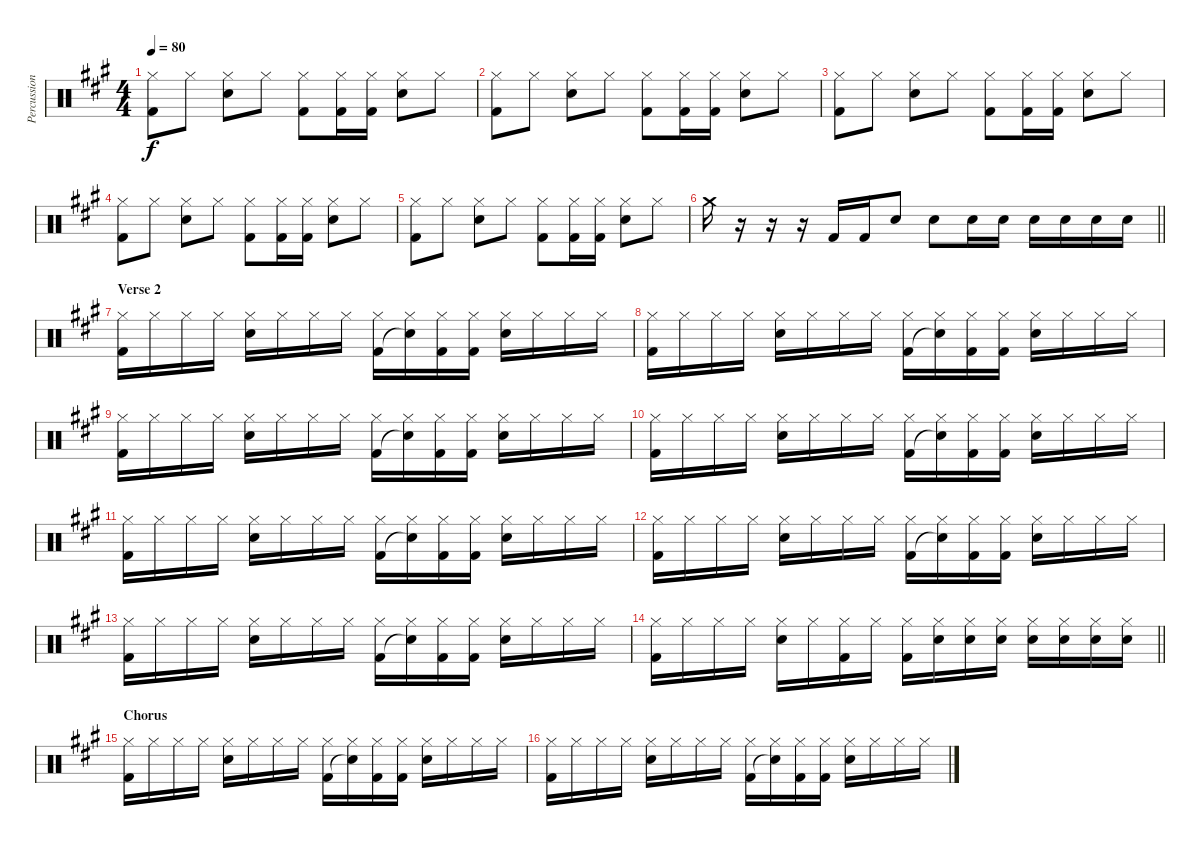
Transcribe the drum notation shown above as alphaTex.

\track ("Percussion" "Percussion") {instrument percussion}
\staff {score}
\articulation defaults
\ts (4 4)
\tempo 80
\clef neutral
\ks a
("Hi-Hat (closed)" "Kick (hit) 2").8{dy f} "Hi-Hat (closed)".8 ("Hi-Hat (closed)" "Snare (hit) 2").8 "Hi-Hat (closed)".8 ("Hi-Hat (closed)" "Kick (hit) 2").8 ("Hi-Hat (closed)" "Kick (hit) 2").16 ("Hi-Hat (closed)" "Kick (hit) 2").16 ("Hi-Hat (closed)" "Snare (hit) 2").8 "Hi-Hat (closed)".8 |
("Hi-Hat (closed)" "Kick (hit) 2").8 "Hi-Hat (closed)".8 ("Hi-Hat (closed)" "Snare (hit) 2").8 "Hi-Hat (closed)".8 ("Hi-Hat (closed)" "Kick (hit) 2").8 ("Hi-Hat (closed)" "Kick (hit) 2").16 ("Hi-Hat (closed)" "Kick (hit) 2").16 ("Hi-Hat (closed)" "Snare (hit) 2").8 "Hi-Hat (closed)".8 |
("Hi-Hat (closed)" "Kick (hit) 2").8 "Hi-Hat (closed)".8 ("Hi-Hat (closed)" "Snare (hit) 2").8 "Hi-Hat (closed)".8 ("Hi-Hat (closed)" "Kick (hit) 2").8 ("Hi-Hat (closed)" "Kick (hit) 2").16 ("Hi-Hat (closed)" "Kick (hit) 2").16 ("Hi-Hat (closed)" "Snare (hit) 2").8 "Hi-Hat (closed)".8 |
("Hi-Hat (closed)" "Kick (hit) 2").8 "Hi-Hat (closed)".8 ("Hi-Hat (closed)" "Snare (hit) 2").8 "Hi-Hat (closed)".8 ("Hi-Hat (closed)" "Kick (hit) 2").8 ("Hi-Hat (closed)" "Kick (hit) 2").16 ("Hi-Hat (closed)" "Kick (hit) 2").16 ("Hi-Hat (closed)" "Snare (hit) 2").8 "Hi-Hat (closed)".8 |
("Hi-Hat (closed)" "Kick (hit) 2").8 "Hi-Hat (closed)".8 ("Hi-Hat (closed)" "Snare (hit) 2").8 "Hi-Hat (closed)".8 ("Hi-Hat (closed)" "Kick (hit) 2").8 ("Hi-Hat (closed)" "Kick (hit) 2").16 ("Hi-Hat (closed)" "Kick (hit) 2").16 ("Hi-Hat (closed)" "Snare (hit) 2").8 "Hi-Hat (closed)".8 |
\barLineRight lightlight "Crash medium (hit)".16
r.16 r.16 r.16 "Kick (hit) 2".16 "Kick (hit) 2".16 "Snare (hit) 2".8 "Snare (hit) 2".8 "Snare (hit) 2".16 "Snare (hit) 2".16 "Snare (hit) 2".16 "Snare (hit) 2".16 "Snare (hit) 2".16 "Snare (hit) 2".16 |
\section ("" "Verse 2")
("Hi-Hat (closed)" "Kick (hit) 2").16 "Hi-Hat (closed)".16 "Hi-Hat (closed)".16 "Hi-Hat (closed)".16 ("Hi-Hat (closed)" "Snare (hit) 2").16 "Hi-Hat (closed)".16 "Hi-Hat (closed)".16 "Hi-Hat (closed)".16 ("Hi-Hat (closed)" "Kick (hit) 2").16 ("Hi-Hat (closed)" "Snare (hit)"{t}).16 ("Hi-Hat (closed)" "Kick (hit) 2").16 ("Hi-Hat (closed)" "Kick (hit) 2").16 ("Hi-Hat (closed)" "Snare (hit) 2").16 "Hi-Hat (closed)".16 "Hi-Hat (closed)".16 "Hi-Hat (closed)".16 |
("Hi-Hat (closed)" "Kick (hit) 2").16 "Hi-Hat (closed)".16 "Hi-Hat (closed)".16 "Hi-Hat (closed)".16 ("Hi-Hat (closed)" "Snare (hit) 2").16 "Hi-Hat (closed)".16 "Hi-Hat (closed)".16 "Hi-Hat (closed)".16 ("Hi-Hat (closed)" "Kick (hit) 2").16 ("Hi-Hat (closed)" "Snare (hit)"{t}).16 ("Hi-Hat (closed)" "Kick (hit) 2").16 ("Hi-Hat (closed)" "Kick (hit) 2").16 ("Hi-Hat (closed)" "Snare (hit) 2").16 "Hi-Hat (closed)".16 "Hi-Hat (closed)".16 "Hi-Hat (closed)".16 |
("Hi-Hat (closed)" "Kick (hit) 2").16 "Hi-Hat (closed)".16 "Hi-Hat (closed)".16 "Hi-Hat (closed)".16 ("Hi-Hat (closed)" "Snare (hit) 2").16 "Hi-Hat (closed)".16 "Hi-Hat (closed)".16 "Hi-Hat (closed)".16 ("Hi-Hat (closed)" "Kick (hit) 2").16 ("Hi-Hat (closed)" "Snare (hit)"{t}).16 ("Hi-Hat (closed)" "Kick (hit) 2").16 ("Hi-Hat (closed)" "Kick (hit) 2").16 ("Hi-Hat (closed)" "Snare (hit) 2").16 "Hi-Hat (closed)".16 "Hi-Hat (closed)".16 "Hi-Hat (closed)".16 |
("Hi-Hat (closed)" "Kick (hit) 2").16 "Hi-Hat (closed)".16 "Hi-Hat (closed)".16 "Hi-Hat (closed)".16 ("Hi-Hat (closed)" "Snare (hit) 2").16 "Hi-Hat (closed)".16 "Hi-Hat (closed)".16 "Hi-Hat (closed)".16 ("Hi-Hat (closed)" "Kick (hit) 2").16 ("Hi-Hat (closed)" "Snare (hit)"{t}).16 ("Hi-Hat (closed)" "Kick (hit) 2").16 ("Hi-Hat (closed)" "Kick (hit) 2").16 ("Hi-Hat (closed)" "Snare (hit) 2").16 "Hi-Hat (closed)".16 "Hi-Hat (closed)".16 "Hi-Hat (closed)".16 |
("Hi-Hat (closed)" "Kick (hit) 2").16 "Hi-Hat (closed)".16 "Hi-Hat (closed)".16 "Hi-Hat (closed)".16 ("Hi-Hat (closed)" "Snare (hit) 2").16 "Hi-Hat (closed)".16 "Hi-Hat (closed)".16 "Hi-Hat (closed)".16 ("Hi-Hat (closed)" "Kick (hit) 2").16 ("Hi-Hat (closed)" "Snare (hit)"{t}).16 ("Hi-Hat (closed)" "Kick (hit) 2").16 ("Hi-Hat (closed)" "Kick (hit) 2").16 ("Hi-Hat (closed)" "Snare (hit) 2").16 "Hi-Hat (closed)".16 "Hi-Hat (closed)".16 "Hi-Hat (closed)".16 |
("Hi-Hat (closed)" "Kick (hit) 2").16 "Hi-Hat (closed)".16 "Hi-Hat (closed)".16 "Hi-Hat (closed)".16 ("Hi-Hat (closed)" "Snare (hit) 2").16 "Hi-Hat (closed)".16 "Hi-Hat (closed)".16 "Hi-Hat (closed)".16 ("Hi-Hat (closed)" "Kick (hit) 2").16 ("Hi-Hat (closed)" "Snare (hit)"{t}).16 ("Hi-Hat (closed)" "Kick (hit) 2").16 ("Hi-Hat (closed)" "Kick (hit) 2").16 ("Hi-Hat (closed)" "Snare (hit) 2").16 "Hi-Hat (closed)".16 "Hi-Hat (closed)".16 "Hi-Hat (closed)".16 |
("Hi-Hat (closed)" "Kick (hit) 2").16 "Hi-Hat (closed)".16 "Hi-Hat (closed)".16 "Hi-Hat (closed)".16 ("Hi-Hat (closed)" "Snare (hit) 2").16 "Hi-Hat (closed)".16 "Hi-Hat (closed)".16 "Hi-Hat (closed)".16 ("Hi-Hat (closed)" "Kick (hit) 2").16 ("Hi-Hat (closed)" "Snare (hit)"{t}).16 ("Hi-Hat (closed)" "Kick (hit) 2").16 ("Hi-Hat (closed)" "Kick (hit) 2").16 ("Hi-Hat (closed)" "Snare (hit) 2").16 "Hi-Hat (closed)".16 "Hi-Hat (closed)".16 "Hi-Hat (closed)".16 |
\barLineRight lightlight
("Hi-Hat (closed)" "Kick (hit) 2").16 "Hi-Hat (closed)".16 "Hi-Hat (closed)".16 "Hi-Hat (closed)".16 ("Hi-Hat (closed)" "Snare (hit) 2").16 "Hi-Hat (closed)".16 ("Hi-Hat (closed)" "Kick (hit) 2").16 "Hi-Hat (closed)".16 ("Hi-Hat (closed)" "Kick (hit) 2").16 ("Hi-Hat (closed)" "Snare (hit) 2").16 ("Hi-Hat (closed)" "Snare (hit) 2").16 ("Hi-Hat (closed)" "Snare (hit) 2").16 ("Hi-Hat (closed)" "Snare (hit) 2").16 ("Hi-Hat (closed)" "Snare (hit) 2").16 ("Hi-Hat (closed)" "Snare (hit) 2").16 ("Hi-Hat (closed)" "Snare (hit) 2").16 |
\section ("" "Chorus")
("Hi-Hat (closed)" "Kick (hit) 2").16 "Hi-Hat (closed)".16 "Hi-Hat (closed)".16 "Hi-Hat (closed)".16 ("Hi-Hat (closed)" "Snare (hit) 2").16 "Hi-Hat (closed)".16 "Hi-Hat (closed)".16 "Hi-Hat (closed)".16 ("Hi-Hat (closed)" "Kick (hit) 2").16 ("Hi-Hat (closed)" "Snare (hit)"{t}).16 ("Hi-Hat (closed)" "Kick (hit) 2").16 ("Hi-Hat (closed)" "Kick (hit) 2").16 ("Hi-Hat (closed)" "Snare (hit) 2").16 "Hi-Hat (closed)".16 "Hi-Hat (closed)".16 "Hi-Hat (closed)".16 |
("Hi-Hat (closed)" "Kick (hit) 2").16 "Hi-Hat (closed)".16 "Hi-Hat (closed)".16 "Hi-Hat (closed)".16 ("Hi-Hat (closed)" "Snare (hit) 2").16 "Hi-Hat (closed)".16 "Hi-Hat (closed)".16 "Hi-Hat (closed)".16 ("Hi-Hat (closed)" "Kick (hit) 2").16 ("Hi-Hat (closed)" "Snare (hit)"{t}).16 ("Hi-Hat (closed)" "Kick (hit) 2").16 ("Hi-Hat (closed)" "Kick (hit) 2").16 ("Hi-Hat (closed)" "Snare (hit) 2").16 "Hi-Hat (closed)".16 "Hi-Hat (closed)".16 "Hi-Hat (closed)".16
